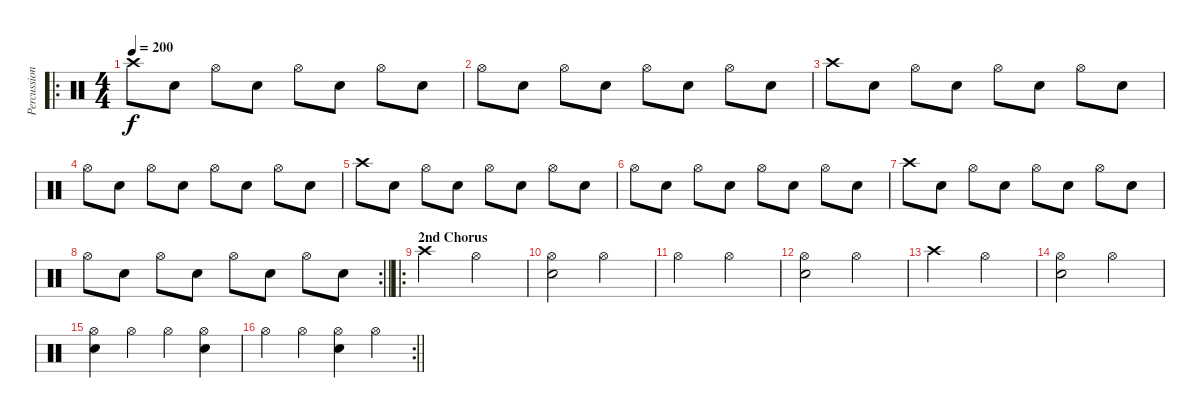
\track ("Percussion" "Percussion") {instrument percussion}
\staff {score}
\articulation defaults
\ro
\ts (4 4)
\tempo 200
\clef neutral
\ks c "Crash high (hit)".8{dy f} "Snare (hit) 2".8 "Hi-Hat (open)".8 "Snare (hit) 2".8 "Hi-Hat (open)".8 "Snare (hit) 2".8 "Hi-Hat (open)".8 "Snare (hit) 2".8
|
"Hi-Hat (open)".8 "Snare (hit) 2".8 "Hi-Hat (open)".8 "Snare (hit) 2".8 "Hi-Hat (open)".8 "Snare (hit) 2".8 "Hi-Hat (open)".8 "Snare (hit) 2".8 |
"Crash high (hit)".8 "Snare (hit) 2".8 "Hi-Hat (open)".8 "Snare (hit) 2".8 "Hi-Hat (open)".8 "Snare (hit) 2".8 "Hi-Hat (open)".8 "Snare (hit) 2".8 |
"Hi-Hat (open)".8 "Snare (hit) 2".8 "Hi-Hat (open)".8 "Snare (hit) 2".8 "Hi-Hat (open)".8 "Snare (hit) 2".8 "Hi-Hat (open)".8 "Snare (hit) 2".8 |
"Crash high (hit)".8 "Snare (hit) 2".8 "Hi-Hat (open)".8 "Snare (hit) 2".8 "Hi-Hat (open)".8 "Snare (hit) 2".8 "Hi-Hat (open)".8 "Snare (hit) 2".8 |
"Hi-Hat (open)".8 "Snare (hit) 2".8 "Hi-Hat (open)".8 "Snare (hit) 2".8 "Hi-Hat (open)".8 "Snare (hit) 2".8 "Hi-Hat (open)".8 "Snare (hit) 2".8 |
"Crash high (hit)".8 "Snare (hit) 2".8 "Hi-Hat (open)".8 "Snare (hit) 2".8 "Hi-Hat (open)".8 "Snare (hit) 2".8 "Hi-Hat (open)".8 "Snare (hit) 2".8 |
\rc 2
\barLineRight lightlight "Hi-Hat (open)".8 "Snare (hit) 2".8 "Hi-Hat (open)".8 "Snare (hit) 2".8 "Hi-Hat (open)".8 "Snare (hit) 2".8 "Hi-Hat (open)".8 "Snare (hit) 2".8
|
\ro
\section ("" "2nd Chorus")
"Crash high (hit)".2 "Hi-Hat (open)".2 |
("Hi-Hat (open)" "Snare (hit) 2").2 "Hi-Hat (open)".2 |
"Hi-Hat (open)".2 "Hi-Hat (open)".2 |
("Hi-Hat (open)" "Snare (hit) 2").2 "Hi-Hat (open)".2 |
"Crash high (hit)".2 "Hi-Hat (open)".2 |
("Hi-Hat (open)" "Snare (hit) 2").2 "Hi-Hat (open)".2 |
("Hi-Hat (open)" "Snare (hit) 2").4 "Hi-Hat (open)".4 "Hi-Hat (open)".4 ("Hi-Hat (open)" "Snare (hit) 2").4 |
\rc 2
\barLineRight lightlight "Hi-Hat (open)".4 "Hi-Hat (open)".4
("Hi-Hat (open)" "Snare (hit) 2").4 "Hi-Hat (open)".4
